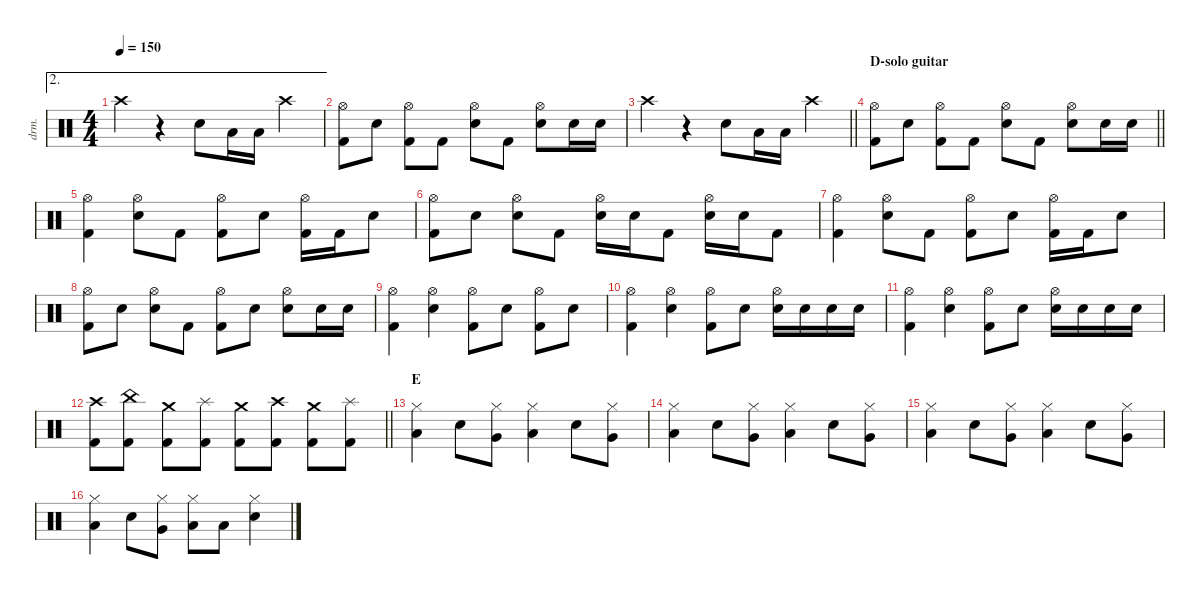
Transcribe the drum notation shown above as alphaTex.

\defaultSystemsLayout 4
\hideDynamics
\bracketExtendMode nobrackets
\otherSystemsTrackNameOrientation horizontal
\track ("Drum" "drm.") {instrument percussion}
\staff {score}
\articulation defaults
\ae 2
\ts (4 4)
\tempo 150
\clef neutral
\ks c "Crash high (hit)".4{dy ff beam Down}
r.4{beam Down} "Snare (hit) 2".8{beam Down} "Low Tom (hit)".16{beam Down} "Low Tom (hit)".16{beam Down} "Crash high (hit)".4{beam Down} |
("Hi-Hat (open)" "Kick (hit) 2").8{beam Down} "Snare (hit) 2".8{beam Down} ("Hi-Hat (open)" "Kick (hit) 2").8{beam Down} "Kick (hit) 2".8{beam Down} ("Hi-Hat (open)" "Snare (hit) 2").8{beam Down} "Kick (hit) 2".8{beam Down} ("Hi-Hat (open)" "Snare (hit) 2").8{beam Down} "Snare (hit) 2".16{beam Down} "Snare (hit) 2".16{beam Down} |
\barLineRight lightlight "Crash high (hit)".4{beam Down}
r.4{beam Down} "Snare (hit) 2".8{beam Down} "Low Tom (hit)".16{beam Down} "Low Tom (hit)".16{beam Down} "Crash high (hit)".4{beam Down} |
\section ("" "D-solo guitar")
\barLineRight lightlight
("Hi-Hat (open)" "Kick (hit) 2").8{beam Down} "Snare (hit) 2".8{beam Down} ("Hi-Hat (open)" "Kick (hit) 2").8{beam Down} "Kick (hit) 2".8{beam Down} ("Hi-Hat (open)" "Snare (hit) 2").8{beam Down} "Kick (hit) 2".8{beam Down} ("Hi-Hat (open)" "Snare (hit) 2").8{beam Down} "Snare (hit) 2".16{beam Down} "Snare (hit) 2".16{beam Down} |
("Hi-Hat (open)" "Kick (hit) 2").4{dy f beam Down} ("Hi-Hat (open)" "Snare (hit) 2").8{beam Down} "Kick (hit) 2".8{beam Down} ("Hi-Hat (open)" "Kick (hit) 2").8{beam Down} "Snare (hit) 2".8{beam Down} ("Hi-Hat (open)" "Kick (hit) 2").16{beam Down} "Kick (hit) 2".16{beam Down} "Snare (hit) 2".8{beam Down} |
("Hi-Hat (open)" "Kick (hit) 2").8{beam Down} "Snare (hit) 2".8{beam Down} ("Hi-Hat (open)" "Snare (hit) 2").8{beam Down} "Kick (hit) 2".8{beam Down} ("Hi-Hat (open)" "Snare (hit) 2").16{beam Down} "Snare (hit) 2".16{beam Down} "Kick (hit) 2".8{beam Down} ("Hi-Hat (open)" "Snare (hit) 2").16{beam Down} "Snare (hit) 2".16{beam Down} "Kick (hit) 2".8{beam Down} |
("Hi-Hat (open)" "Kick (hit) 2").4{beam Down} ("Hi-Hat (open)" "Snare (hit) 2").8{beam Down} "Kick (hit) 2".8{beam Down} ("Hi-Hat (open)" "Kick (hit) 2").8{beam Down} "Snare (hit) 2".8{beam Down} ("Hi-Hat (open)" "Kick (hit) 2").16{beam Down} "Kick (hit) 2".16{beam Down} "Snare (hit) 2".8{beam Down} |
("Hi-Hat (open)" "Kick (hit) 2").8{beam Down} "Snare (hit) 2".8{beam Down} ("Hi-Hat (open)" "Snare (hit) 2").8{beam Down} "Kick (hit) 2".8{beam Down} ("Hi-Hat (open)" "Kick (hit) 2").8{beam Down} "Snare (hit) 2".8{beam Down} ("Hi-Hat (open)" "Snare (hit) 2").8{beam Down} "Snare (hit) 2".16{beam Down} "Snare (hit) 2".16{beam Down} |
("Hi-Hat (open)" "Kick (hit) 2").4{beam Down} ("Hi-Hat (open)" "Snare (hit) 2").4{beam Down} ("Hi-Hat (open)" "Kick (hit) 2").8{beam Down} "Snare (hit) 2".8{beam Down} ("Hi-Hat (open)" "Kick (hit) 2").8{beam Down} "Snare (hit) 2".8{beam Down} |
("Hi-Hat (open)" "Kick (hit) 2").4{beam Down} ("Hi-Hat (open)" "Snare (hit) 2").4{beam Down} ("Hi-Hat (open)" "Kick (hit) 2").8{beam Down} "Snare (hit) 2".8{beam Down} ("Hi-Hat (open)" "Snare (hit) 2").16{beam Down} "Snare (hit) 2".16{beam Down} "Snare (hit) 2".16{beam Down} "Snare (hit) 2".16{beam Down} |
("Hi-Hat (open)" "Kick (hit) 2").4{beam Down} ("Hi-Hat (open)" "Snare (hit) 2").4{beam Down} ("Hi-Hat (open)" "Kick (hit) 2").8{beam Down} "Snare (hit) 2".8{beam Down} ("Hi-Hat (open)" "Snare (hit) 2").16{beam Down} "Snare (hit) 2".16{beam Down} "Snare (hit) 2".16{beam Down} "Snare (hit) 2".16{beam Down} |
\barLineRight lightlight
("Crash high (hit)" "Kick (hit) 2").8{dy ff beam Down} ("China (hit)" "Kick (hit) 2").8{beam Down} ("Crash medium (hit)" "Kick (hit) 2").8{beam Down} ("Splash (hit)" "Kick (hit) 2").8{beam Down} ("Crash medium (hit)" "Kick (hit) 2").8{beam Down} ("Crash high (hit)" "Kick (hit) 2").8{beam Down} ("Crash medium (hit)" "Kick (hit) 2").8{beam Down} ("Splash (hit)" "Kick (hit) 2").8{beam Down} |
\section ("" "E")
("Hi-Hat (closed)" "Low Floor Tom (hit)").4{dy f beam Down} "Snare (hit) 2".8{beam Down} ("Hi-Hat (closed)" "Very Low Tom (hit)").8{beam Down} ("Hi-Hat (closed)" "Low Floor Tom (hit)").4{beam Down} "Snare (hit) 2".8{beam Down} ("Hi-Hat (closed)" "Very Low Tom (hit)").8{beam Down} |
("Hi-Hat (closed)" "Low Floor Tom (hit)").4{beam Down} "Snare (hit) 2".8{beam Down} ("Hi-Hat (closed)" "Very Low Tom (hit)").8{beam Down} ("Hi-Hat (closed)" "Low Floor Tom (hit)").4{beam Down} "Snare (hit) 2".8{beam Down} ("Hi-Hat (closed)" "Very Low Tom (hit)").8{beam Down} |
("Hi-Hat (closed)" "Low Floor Tom (hit)").4{beam Down} "Snare (hit) 2".8{beam Down} ("Hi-Hat (closed)" "Very Low Tom (hit)").8{beam Down} ("Hi-Hat (closed)" "Low Floor Tom (hit)").4{beam Down} "Snare (hit) 2".8{beam Down} ("Hi-Hat (closed)" "Very Low Tom (hit)").8{beam Down} |
("Hi-Hat (closed)" "Low Floor Tom (hit)").4{beam Down} "Snare (hit) 2".8{beam Down} ("Hi-Hat (closed)" "Very Low Tom (hit)").8{beam Down} ("Hi-Hat (closed)" "Low Floor Tom (hit)").8{beam Down} "Low Floor Tom (hit)".8{beam Down} ("Hi-Hat (closed)" "Snare (hit) 2").4{dy fff beam Down}
